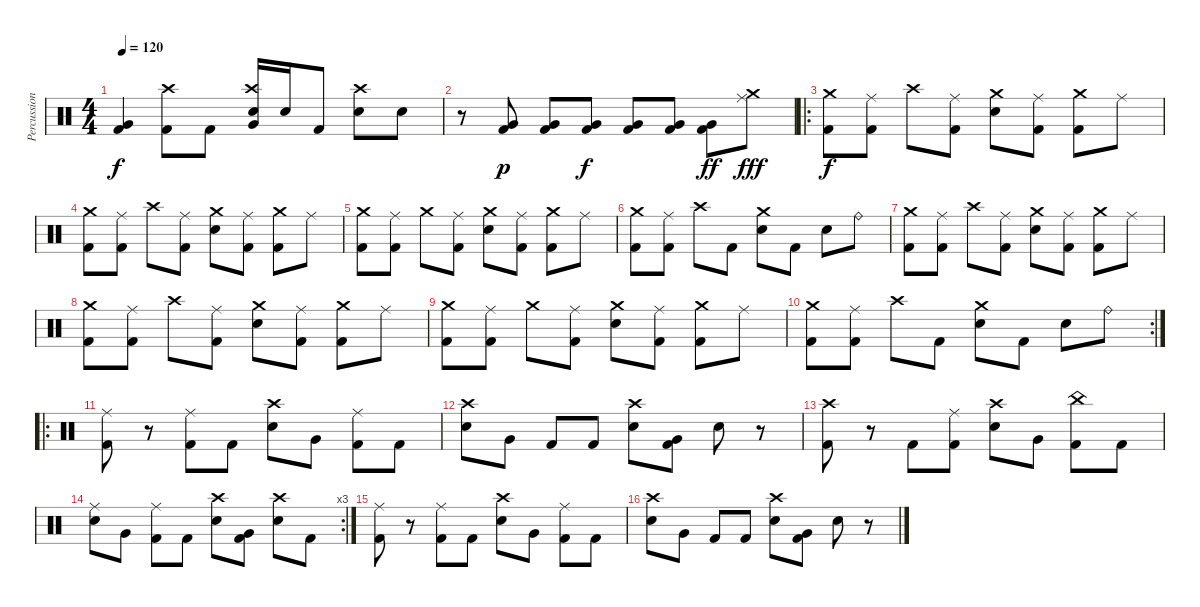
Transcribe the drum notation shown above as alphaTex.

\track ("Percussion" "Percussion") {instrument percussion}
\staff {score}
\articulation defaults
\ts (4 4)
\tempo 120
\clef neutral
\ks c
("Very Low Tom (hit)" "Kick (hit) 2").4{dy f} ("Crash high (hit)" "Kick (hit) 2").8 "Kick (hit) 2".8 ("Crash high (hit)" "Very Low Tom (hit)" "Electric Snare (hit)").16 "Electric Snare (hit)".16 "Kick (hit) 2".8 ("Crash high (hit)" "Electric Snare (hit)").8 "Electric Snare (hit)".8 |
r.8 ("Very Low Tom (hit)" "Kick (hit) 2").8{dy p} ("Very Low Tom (hit)" "Kick (hit) 2").8 ("Very Low Tom (hit)" "Kick (hit) 2").8{dy f} ("Very Low Tom (hit)" "Kick (hit) 2").8 ("Very Low Tom (hit)" "Kick (hit) 2").8 ("Very Low Tom (hit)" "Kick (hit) 2").8{dy ff} ("Ride (middle)" "Crash medium (hit)").8{dy fff} |
\ro
("Crash medium (hit)" "Kick (hit) 2").8{dy f} ("Ride (middle)" "Kick (hit) 2").8 "Crash high (hit)".8 ("Ride (middle)" "Kick (hit) 2").8 ("Crash medium (hit)" "Electric Snare (hit)").8 ("Ride (middle)" "Kick (hit) 2").8 ("Crash medium (hit)" "Kick (hit) 2").8 "Ride (middle)".8 |
("Crash medium (hit)" "Kick (hit) 2").8 ("Ride (middle)" "Kick (hit) 2").8 "Crash high (hit)".8 ("Ride (middle)" "Kick (hit) 2").8 ("Crash medium (hit)" "Electric Snare (hit)").8 ("Ride (middle)" "Kick (hit) 2").8 ("Crash medium (hit)" "Kick (hit) 2").8 "Ride (middle)".8 |
("Crash medium (hit)" "Kick (hit) 2").8 ("Ride (middle)" "Kick (hit) 2").8 "Crash medium (hit)".8 ("Ride (middle)" "Kick (hit) 2").8 ("Crash medium (hit)" "Electric Snare (hit)").8 ("Ride (middle)" "Kick (hit) 2").8 ("Crash medium (hit)" "Kick (hit) 2").8 "Ride (middle)".8 |
("Crash medium (hit)" "Kick (hit) 2").8 ("Ride (middle)" "Kick (hit) 2").8 "Crash high (hit)".8 "Kick (hit) 2".8 ("Crash medium (hit)" "Electric Snare (hit)").8 "Kick (hit) 2".8 "Electric Snare (hit)".8 "Ride (bell)".8 |
("Crash medium (hit)" "Kick (hit) 2").8 ("Ride (middle)" "Kick (hit) 2").8 "Crash high (hit)".8 ("Ride (middle)" "Kick (hit) 2").8 ("Crash medium (hit)" "Electric Snare (hit)").8 ("Ride (middle)" "Kick (hit) 2").8 ("Crash medium (hit)" "Kick (hit) 2").8 "Ride (middle)".8 |
("Crash medium (hit)" "Kick (hit) 2").8 ("Ride (middle)" "Kick (hit) 2").8 "Crash high (hit)".8 ("Ride (middle)" "Kick (hit) 2").8 ("Crash medium (hit)" "Electric Snare (hit)").8 ("Ride (middle)" "Kick (hit) 2").8 ("Crash medium (hit)" "Kick (hit) 2").8 "Ride (middle)".8 |
("Crash medium (hit)" "Kick (hit) 2").8 ("Ride (middle)" "Kick (hit) 2").8 "Crash medium (hit)".8 ("Ride (middle)" "Kick (hit) 2").8 ("Crash medium (hit)" "Electric Snare (hit)").8 ("Ride (middle)" "Kick (hit) 2").8 ("Crash medium (hit)" "Kick (hit) 2").8 "Ride (middle)".8 |
\rc 2
("Crash medium (hit)" "Kick (hit) 2").8 ("Ride (middle)" "Kick (hit) 2").8 "Crash high (hit)".8 "Kick (hit) 2".8 ("Crash medium (hit)" "Electric Snare (hit)").8 "Kick (hit) 2".8 "Electric Snare (hit)".8 "Ride (bell)".8 |
\ro
("Ride (middle)" "Kick (hit) 2").8 r.8 ("Ride (middle)" "Kick (hit) 2").8 "Kick (hit) 2".8 ("Crash high (hit)" "Electric Snare (hit)").8 "Very Low Tom (hit)".8 ("Ride (middle)" "Kick (hit) 2").8 "Kick (hit) 2".8 |
("Crash high (hit)" "Electric Snare (hit)").8 "Very Low Tom (hit)".8 "Kick (hit) 2".8 "Kick (hit) 2".8 ("Crash high (hit)" "Electric Snare (hit)").8 ("Very Low Tom (hit)" "Kick (hit) 2").8 "Electric Snare (hit)".8 r.8 |
("Crash high (hit)" "Kick (hit) 2").8 r.8 "Kick (hit) 2".8 ("Ride (middle)" "Kick (hit) 2").8 ("Crash high (hit)" "Electric Snare (hit)").8 "Very Low Tom (hit)".8 ("China (hit)" "Kick (hit) 2").8 "Kick (hit) 2".8 |
\rc 3
("Ride (middle)" "Electric Snare (hit)").8 "Very Low Tom (hit)".8 ("Ride (middle)" "Kick (hit) 2").8 "Kick (hit) 2".8 ("Crash high (hit)" "Electric Snare (hit)").8 ("Very Low Tom (hit)" "Kick (hit) 2").8 ("Crash high (hit)" "Electric Snare (hit)").8 "Kick (hit) 2".8 |
("Ride (middle)" "Kick (hit) 2").8 r.8 ("Ride (middle)" "Kick (hit) 2").8 "Kick (hit) 2".8 ("Crash high (hit)" "Electric Snare (hit)").8 "Very Low Tom (hit)".8 ("Ride (middle)" "Kick (hit) 2").8 "Kick (hit) 2".8 |
("Crash high (hit)" "Electric Snare (hit)").8 "Very Low Tom (hit)".8 "Kick (hit) 2".8 "Kick (hit) 2".8 ("Crash high (hit)" "Electric Snare (hit)").8 ("Very Low Tom (hit)" "Kick (hit) 2").8 "Electric Snare (hit)".8 r.8
